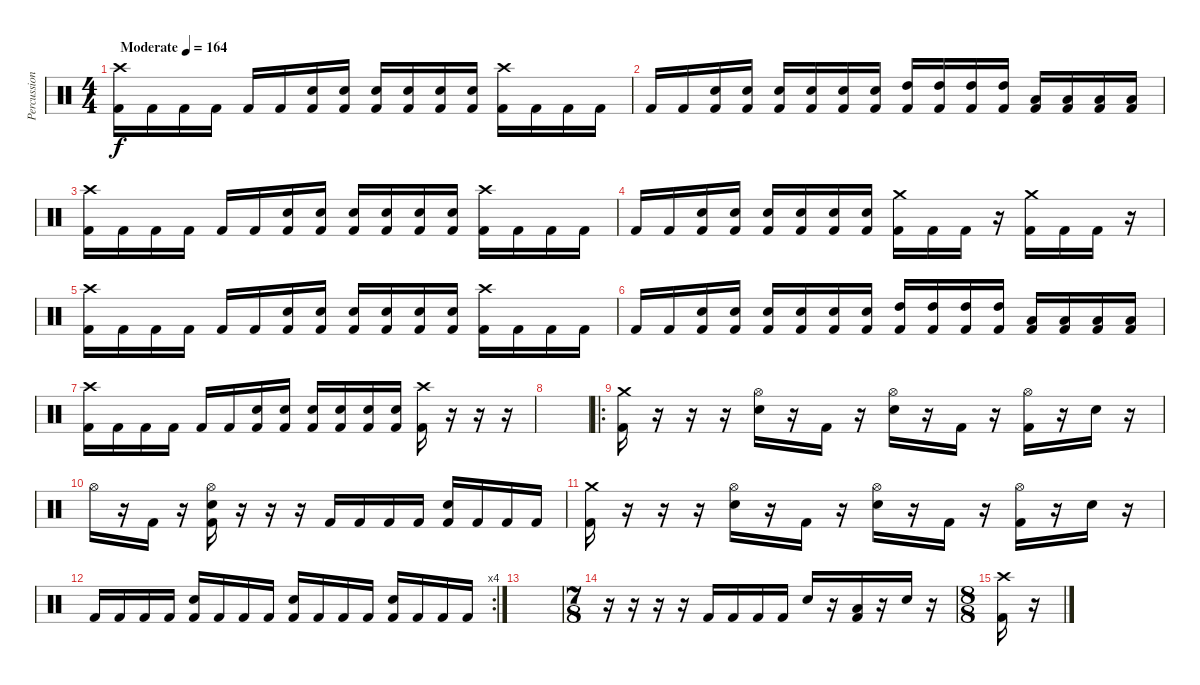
\track ("Percussion" "Percussion") {instrument percussion}
\staff {score}
\articulation defaults
\ts (4 4)
\tempo (164 "Moderate")
\clef neutral
\ks c
("Crash high (hit)" "Kick (hit) 2").16{dy f} "Kick (hit) 2".16 "Kick (hit) 2".16 "Kick (hit) 2".16 "Kick (hit) 2".16 "Kick (hit) 2".16 ("Snare (hit) 2" "Kick (hit) 2").16 ("Snare (hit) 2" "Kick (hit) 2").16 ("Snare (hit) 2" "Kick (hit) 2").16 ("Snare (hit) 2" "Kick (hit) 2").16 ("Snare (hit) 2" "Kick (hit) 2").16 ("Snare (hit) 2" "Kick (hit) 2").16 ("Crash high (hit)" "Kick (hit) 2").16 "Kick (hit) 2".16 "Kick (hit) 2".16 "Kick (hit) 2".16 |
"Kick (hit) 2".16 "Kick (hit) 2".16 ("Snare (hit) 2" "Kick (hit) 2").16 ("Snare (hit) 2" "Kick (hit) 2").16 ("Snare (hit) 2" "Kick (hit) 2").16 ("Snare (hit) 2" "Kick (hit) 2").16 ("Snare (hit) 2" "Kick (hit) 2").16 ("Snare (hit) 2" "Kick (hit) 2").16 ("High Tom (hit)" "Kick (hit) 2").16 ("High Tom (hit)" "Kick (hit) 2").16 ("High Tom (hit)" "Kick (hit) 2").16 ("High Tom (hit)" "Kick (hit) 2").16 ("Low Tom (hit)" "Kick (hit) 2").16 ("Low Tom (hit)" "Kick (hit) 2").16 ("Low Tom (hit)" "Kick (hit) 2").16 ("Low Tom (hit)" "Kick (hit) 2").16 |
("Crash high (hit)" "Kick (hit) 2").16 "Kick (hit) 2".16 "Kick (hit) 2".16 "Kick (hit) 2".16 "Kick (hit) 2".16 "Kick (hit) 2".16 ("Snare (hit) 2" "Kick (hit) 2").16 ("Snare (hit) 2" "Kick (hit) 2").16 ("Snare (hit) 2" "Kick (hit) 2").16 ("Snare (hit) 2" "Kick (hit) 2").16 ("Snare (hit) 2" "Kick (hit) 2").16 ("Snare (hit) 2" "Kick (hit) 2").16 ("Crash high (hit)" "Kick (hit) 2").16 "Kick (hit) 2".16 "Kick (hit) 2".16 "Kick (hit) 2".16 |
"Kick (hit) 2".16 "Kick (hit) 2".16 ("Snare (hit) 2" "Kick (hit) 2").16 ("Snare (hit) 2" "Kick (hit) 2").16 ("Snare (hit) 2" "Kick (hit) 2").16 ("Snare (hit) 2" "Kick (hit) 2").16 ("Snare (hit) 2" "Kick (hit) 2").16 ("Snare (hit) 2" "Kick (hit) 2").16 ("Crash medium (hit)" "Kick (hit) 2").16 "Kick (hit) 2".16 "Kick (hit) 2".16 r.16 ("Crash medium (hit)" "Kick (hit) 2").16 "Kick (hit) 2".16 "Kick (hit) 2".16 r.16 |
("Crash high (hit)" "Kick (hit) 2").16 "Kick (hit) 2".16 "Kick (hit) 2".16 "Kick (hit) 2".16 "Kick (hit) 2".16 "Kick (hit) 2".16 ("Snare (hit) 2" "Kick (hit) 2").16 ("Snare (hit) 2" "Kick (hit) 2").16 ("Snare (hit) 2" "Kick (hit) 2").16 ("Snare (hit) 2" "Kick (hit) 2").16 ("Snare (hit) 2" "Kick (hit) 2").16 ("Snare (hit) 2" "Kick (hit) 2").16 ("Crash high (hit)" "Kick (hit) 2").16 "Kick (hit) 2".16 "Kick (hit) 2".16 "Kick (hit) 2".16 |
"Kick (hit) 2".16 "Kick (hit) 2".16 ("Snare (hit) 2" "Kick (hit) 2").16 ("Snare (hit) 2" "Kick (hit) 2").16 ("Snare (hit) 2" "Kick (hit) 2").16 ("Snare (hit) 2" "Kick (hit) 2").16 ("Snare (hit) 2" "Kick (hit) 2").16 ("Snare (hit) 2" "Kick (hit) 2").16 ("High Tom (hit)" "Kick (hit) 2").16 ("High Tom (hit)" "Kick (hit) 2").16 ("High Tom (hit)" "Kick (hit) 2").16 ("High Tom (hit)" "Kick (hit) 2").16 ("Low Tom (hit)" "Kick (hit) 2").16 ("Low Tom (hit)" "Kick (hit) 2").16 ("Low Tom (hit)" "Kick (hit) 2").16 ("Low Tom (hit)" "Kick (hit) 2").16 |
("Crash high (hit)" "Kick (hit) 2").16 "Kick (hit) 2".16 "Kick (hit) 2".16 "Kick (hit) 2".16 "Kick (hit) 2".16 "Kick (hit) 2".16 ("Snare (hit) 2" "Kick (hit) 2").16 ("Snare (hit) 2" "Kick (hit) 2").16 ("Snare (hit) 2" "Kick (hit) 2").16 ("Snare (hit) 2" "Kick (hit) 2").16 ("Snare (hit) 2" "Kick (hit) 2").16 ("Snare (hit) 2" "Kick (hit) 2").16 ("Crash high (hit)" "Kick (hit) 2").16 r.16 r.16 r.16 |
|
\ro
("Crash medium (hit)" "Kick (hit) 2").16 r.16 r.16 r.16 ("Hi-Hat (open)" "Snare (hit) 2").16 r.16 "Kick (hit) 2".16 r.16 ("Hi-Hat (open)" "Snare (hit) 2").16 r.16 "Kick (hit) 2".16 r.16 ("Hi-Hat (open)" "Kick (hit) 2").16 r.16 "Snare (hit) 2".16 r.16 |
"Hi-Hat (open)".16 r.16 "Kick (hit) 2".16 r.16 ("Hi-Hat (open)" "Snare (hit) 2" "Kick (hit) 2").16 r.16 r.16 r.16 "Kick (hit) 2".16 "Kick (hit) 2".16 "Kick (hit) 2".16 "Kick (hit) 2".16 ("Snare (hit) 2" "Kick (hit) 2").16 "Kick (hit) 2".16 "Kick (hit) 2".16 "Kick (hit) 2".16 |
("Crash medium (hit)" "Kick (hit) 2").16 r.16 r.16 r.16 ("Hi-Hat (open)" "Snare (hit) 2").16 r.16 "Kick (hit) 2".16 r.16 ("Hi-Hat (open)" "Snare (hit) 2").16 r.16 "Kick (hit) 2".16 r.16 ("Hi-Hat (open)" "Kick (hit) 2").16 r.16 "Snare (hit) 2".16 r.16 |
\rc 4 "Kick (hit) 2".16 "Kick (hit) 2".16 "Kick (hit) 2".16 "Kick (hit) 2".16
("Snare (hit) 2" "Kick (hit) 2").16 "Kick (hit) 2".16 "Kick (hit) 2".16 "Kick (hit) 2".16 ("Snare (hit) 2" "Kick (hit) 2").16 "Kick (hit) 2".16 "Kick (hit) 2".16 "Kick (hit) 2".16 ("Snare (hit) 2" "Kick (hit) 2").16 "Kick (hit) 2".16 "Kick (hit) 2".16 "Kick (hit) 2".16 |
|
\ts (7 8)
r.16 r.16 r.16 r.16 "Kick (hit) 2".16 "Kick (hit) 2".16 "Kick (hit) 2".16 "Kick (hit) 2".16 "Snare (hit) 2".16 r.16 ("Low Floor Tom (hit)" "Kick (hit) 2").16 r.16 "Snare (hit) 2".16 r.16 |
\ts (8 8)
("Crash high (hit)" "Kick (hit) 2").16 r.16
